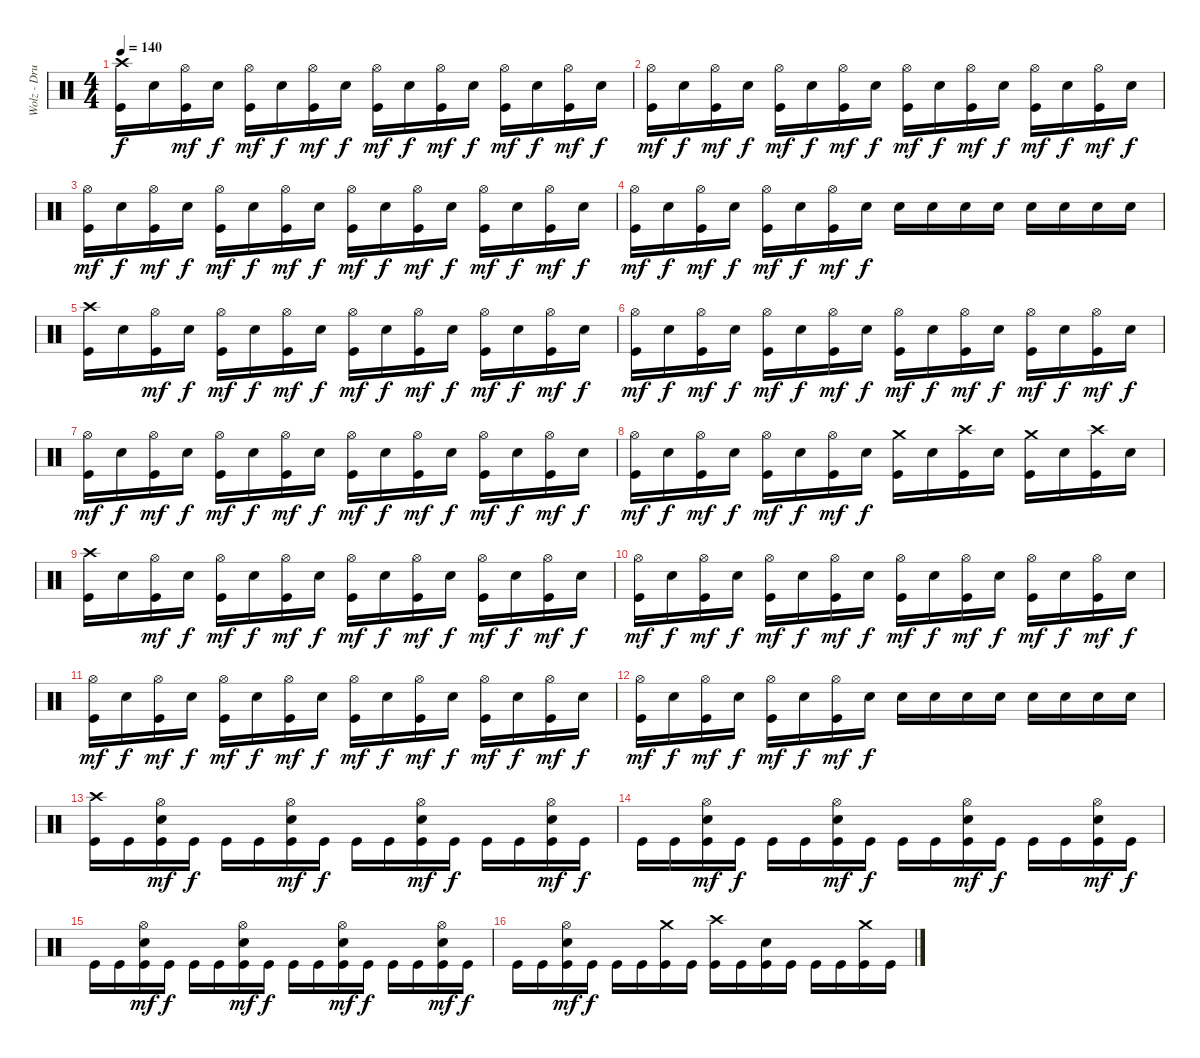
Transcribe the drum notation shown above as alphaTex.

\track ("Wolz - Drums" "Wolz - Dru") {instrument percussion}
\staff {score}
\articulation defaults
\ts (4 4)
\tempo 140
\clef neutral
\ks c
("Crash high (hit)" "Kick (hit)").16{dy f} "Electric Snare (hit)".16 ("Hi-Hat (open)" "Kick (hit)").16{dy mf} "Electric Snare (hit)".16{dy f} ("Hi-Hat (open)" "Kick (hit)").16{dy mf} "Electric Snare (hit)".16{dy f} ("Hi-Hat (open)" "Kick (hit)").16{dy mf} "Electric Snare (hit)".16{dy f} ("Hi-Hat (open)" "Kick (hit)").16{dy mf} "Electric Snare (hit)".16{dy f} ("Hi-Hat (open)" "Kick (hit)").16{dy mf} "Electric Snare (hit)".16{dy f} ("Hi-Hat (open)" "Kick (hit)").16{dy mf} "Electric Snare (hit)".16{dy f} ("Hi-Hat (open)" "Kick (hit)").16{dy mf} "Electric Snare (hit)".16{dy f} |
("Hi-Hat (open)" "Kick (hit)").16{dy mf} "Electric Snare (hit)".16{dy f} ("Hi-Hat (open)" "Kick (hit)").16{dy mf} "Electric Snare (hit)".16{dy f} ("Hi-Hat (open)" "Kick (hit)").16{dy mf} "Electric Snare (hit)".16{dy f} ("Hi-Hat (open)" "Kick (hit)").16{dy mf} "Electric Snare (hit)".16{dy f} ("Hi-Hat (open)" "Kick (hit)").16{dy mf} "Electric Snare (hit)".16{dy f} ("Hi-Hat (open)" "Kick (hit)").16{dy mf} "Electric Snare (hit)".16{dy f} ("Hi-Hat (open)" "Kick (hit)").16{dy mf} "Electric Snare (hit)".16{dy f} ("Hi-Hat (open)" "Kick (hit)").16{dy mf} "Electric Snare (hit)".16{dy f} |
("Hi-Hat (open)" "Kick (hit)").16{dy mf} "Electric Snare (hit)".16{dy f} ("Hi-Hat (open)" "Kick (hit)").16{dy mf} "Electric Snare (hit)".16{dy f} ("Hi-Hat (open)" "Kick (hit)").16{dy mf} "Electric Snare (hit)".16{dy f} ("Hi-Hat (open)" "Kick (hit)").16{dy mf} "Electric Snare (hit)".16{dy f} ("Hi-Hat (open)" "Kick (hit)").16{dy mf} "Electric Snare (hit)".16{dy f} ("Hi-Hat (open)" "Kick (hit)").16{dy mf} "Electric Snare (hit)".16{dy f} ("Hi-Hat (open)" "Kick (hit)").16{dy mf} "Electric Snare (hit)".16{dy f} ("Hi-Hat (open)" "Kick (hit)").16{dy mf} "Electric Snare (hit)".16{dy f} |
("Hi-Hat (open)" "Kick (hit)").16{dy mf} "Electric Snare (hit)".16{dy f} ("Hi-Hat (open)" "Kick (hit)").16{dy mf} "Electric Snare (hit)".16{dy f} ("Hi-Hat (open)" "Kick (hit)").16{dy mf} "Electric Snare (hit)".16{dy f} ("Hi-Hat (open)" "Kick (hit)").16{dy mf} "Electric Snare (hit)".16{dy f} "Electric Snare (hit)".16 "Electric Snare (hit)".16 "Electric Snare (hit)".16 "Electric Snare (hit)".16 "Electric Snare (hit)".16 "Electric Snare (hit)".16 "Electric Snare (hit)".16 "Electric Snare (hit)".16 |
("Crash high (hit)" "Kick (hit)").16 "Electric Snare (hit)".16 ("Hi-Hat (open)" "Kick (hit)").16{dy mf} "Electric Snare (hit)".16{dy f} ("Hi-Hat (open)" "Kick (hit)").16{dy mf} "Electric Snare (hit)".16{dy f} ("Hi-Hat (open)" "Kick (hit)").16{dy mf} "Electric Snare (hit)".16{dy f} ("Hi-Hat (open)" "Kick (hit)").16{dy mf} "Electric Snare (hit)".16{dy f} ("Hi-Hat (open)" "Kick (hit)").16{dy mf} "Electric Snare (hit)".16{dy f} ("Hi-Hat (open)" "Kick (hit)").16{dy mf} "Electric Snare (hit)".16{dy f} ("Hi-Hat (open)" "Kick (hit)").16{dy mf} "Electric Snare (hit)".16{dy f} |
("Hi-Hat (open)" "Kick (hit)").16{dy mf} "Electric Snare (hit)".16{dy f} ("Hi-Hat (open)" "Kick (hit)").16{dy mf} "Electric Snare (hit)".16{dy f} ("Hi-Hat (open)" "Kick (hit)").16{dy mf} "Electric Snare (hit)".16{dy f} ("Hi-Hat (open)" "Kick (hit)").16{dy mf} "Electric Snare (hit)".16{dy f} ("Hi-Hat (open)" "Kick (hit)").16{dy mf} "Electric Snare (hit)".16{dy f} ("Hi-Hat (open)" "Kick (hit)").16{dy mf} "Electric Snare (hit)".16{dy f} ("Hi-Hat (open)" "Kick (hit)").16{dy mf} "Electric Snare (hit)".16{dy f} ("Hi-Hat (open)" "Kick (hit)").16{dy mf} "Electric Snare (hit)".16{dy f} |
("Hi-Hat (open)" "Kick (hit)").16{dy mf} "Electric Snare (hit)".16{dy f} ("Hi-Hat (open)" "Kick (hit)").16{dy mf} "Electric Snare (hit)".16{dy f} ("Hi-Hat (open)" "Kick (hit)").16{dy mf} "Electric Snare (hit)".16{dy f} ("Hi-Hat (open)" "Kick (hit)").16{dy mf} "Electric Snare (hit)".16{dy f} ("Hi-Hat (open)" "Kick (hit)").16{dy mf} "Electric Snare (hit)".16{dy f} ("Hi-Hat (open)" "Kick (hit)").16{dy mf} "Electric Snare (hit)".16{dy f} ("Hi-Hat (open)" "Kick (hit)").16{dy mf} "Electric Snare (hit)".16{dy f} ("Hi-Hat (open)" "Kick (hit)").16{dy mf} "Electric Snare (hit)".16{dy f} |
("Hi-Hat (open)" "Kick (hit)").16{dy mf} "Electric Snare (hit)".16{dy f} ("Hi-Hat (open)" "Kick (hit)").16{dy mf} "Electric Snare (hit)".16{dy f} ("Hi-Hat (open)" "Kick (hit)").16{dy mf} "Electric Snare (hit)".16{dy f} ("Hi-Hat (open)" "Kick (hit)").16{dy mf} "Electric Snare (hit)".16{dy f} ("Crash medium (hit)" "Kick (hit)").16 "Electric Snare (hit)".16 ("Crash high (hit)" "Kick (hit)").16 "Electric Snare (hit)".16 ("Crash medium (hit)" "Kick (hit)").16 "Electric Snare (hit)".16 ("Crash high (hit)" "Kick (hit)").16 "Electric Snare (hit)".16 |
("Crash high (hit)" "Kick (hit)").16 "Electric Snare (hit)".16 ("Hi-Hat (open)" "Kick (hit)").16{dy mf} "Electric Snare (hit)".16{dy f} ("Hi-Hat (open)" "Kick (hit)").16{dy mf} "Electric Snare (hit)".16{dy f} ("Hi-Hat (open)" "Kick (hit)").16{dy mf} "Electric Snare (hit)".16{dy f} ("Hi-Hat (open)" "Kick (hit)").16{dy mf} "Electric Snare (hit)".16{dy f} ("Hi-Hat (open)" "Kick (hit)").16{dy mf} "Electric Snare (hit)".16{dy f} ("Hi-Hat (open)" "Kick (hit)").16{dy mf} "Electric Snare (hit)".16{dy f} ("Hi-Hat (open)" "Kick (hit)").16{dy mf} "Electric Snare (hit)".16{dy f} |
("Hi-Hat (open)" "Kick (hit)").16{dy mf} "Electric Snare (hit)".16{dy f} ("Hi-Hat (open)" "Kick (hit)").16{dy mf} "Electric Snare (hit)".16{dy f} ("Hi-Hat (open)" "Kick (hit)").16{dy mf} "Electric Snare (hit)".16{dy f} ("Hi-Hat (open)" "Kick (hit)").16{dy mf} "Electric Snare (hit)".16{dy f} ("Hi-Hat (open)" "Kick (hit)").16{dy mf} "Electric Snare (hit)".16{dy f} ("Hi-Hat (open)" "Kick (hit)").16{dy mf} "Electric Snare (hit)".16{dy f} ("Hi-Hat (open)" "Kick (hit)").16{dy mf} "Electric Snare (hit)".16{dy f} ("Hi-Hat (open)" "Kick (hit)").16{dy mf} "Electric Snare (hit)".16{dy f} |
("Hi-Hat (open)" "Kick (hit)").16{dy mf} "Electric Snare (hit)".16{dy f} ("Hi-Hat (open)" "Kick (hit)").16{dy mf} "Electric Snare (hit)".16{dy f} ("Hi-Hat (open)" "Kick (hit)").16{dy mf} "Electric Snare (hit)".16{dy f} ("Hi-Hat (open)" "Kick (hit)").16{dy mf} "Electric Snare (hit)".16{dy f} ("Hi-Hat (open)" "Kick (hit)").16{dy mf} "Electric Snare (hit)".16{dy f} ("Hi-Hat (open)" "Kick (hit)").16{dy mf} "Electric Snare (hit)".16{dy f} ("Hi-Hat (open)" "Kick (hit)").16{dy mf} "Electric Snare (hit)".16{dy f} ("Hi-Hat (open)" "Kick (hit)").16{dy mf} "Electric Snare (hit)".16{dy f} |
("Hi-Hat (open)" "Kick (hit)").16{dy mf} "Electric Snare (hit)".16{dy f} ("Hi-Hat (open)" "Kick (hit)").16{dy mf} "Electric Snare (hit)".16{dy f} ("Hi-Hat (open)" "Kick (hit)").16{dy mf} "Electric Snare (hit)".16{dy f} ("Hi-Hat (open)" "Kick (hit)").16{dy mf} "Electric Snare (hit)".16{dy f} "Electric Snare (hit)".16 "Electric Snare (hit)".16 "Electric Snare (hit)".16 "Electric Snare (hit)".16 "Electric Snare (hit)".16 "Electric Snare (hit)".16 "Electric Snare (hit)".16 "Electric Snare (hit)".16 |
("Crash high (hit)" "Kick (hit)").16 "Kick (hit)".16 ("Hi-Hat (open)" "Electric Snare (hit)" "Kick (hit)").16{dy mf} "Kick (hit)".16{dy f} "Kick (hit)".16 "Kick (hit)".16 ("Hi-Hat (open)" "Electric Snare (hit)" "Kick (hit)").16{dy mf} "Kick (hit)".16{dy f} "Kick (hit)".16 "Kick (hit)".16 ("Hi-Hat (open)" "Electric Snare (hit)" "Kick (hit)").16{dy mf} "Kick (hit)".16{dy f} "Kick (hit)".16 "Kick (hit)".16 ("Hi-Hat (open)" "Electric Snare (hit)" "Kick (hit)").16{dy mf} "Kick (hit)".16{dy f} |
"Kick (hit)".16 "Kick (hit)".16 ("Hi-Hat (open)" "Electric Snare (hit)" "Kick (hit)").16{dy mf} "Kick (hit)".16{dy f} "Kick (hit)".16 "Kick (hit)".16 ("Hi-Hat (open)" "Electric Snare (hit)" "Kick (hit)").16{dy mf} "Kick (hit)".16{dy f} "Kick (hit)".16 "Kick (hit)".16 ("Hi-Hat (open)" "Electric Snare (hit)" "Kick (hit)").16{dy mf} "Kick (hit)".16{dy f} "Kick (hit)".16 "Kick (hit)".16 ("Hi-Hat (open)" "Electric Snare (hit)" "Kick (hit)").16{dy mf} "Kick (hit)".16{dy f} |
"Kick (hit)".16 "Kick (hit)".16 ("Hi-Hat (open)" "Electric Snare (hit)" "Kick (hit)").16{dy mf} "Kick (hit)".16{dy f} "Kick (hit)".16 "Kick (hit)".16 ("Hi-Hat (open)" "Electric Snare (hit)" "Kick (hit)").16{dy mf} "Kick (hit)".16{dy f} "Kick (hit)".16 "Kick (hit)".16 ("Hi-Hat (open)" "Electric Snare (hit)" "Kick (hit)").16{dy mf} "Kick (hit)".16{dy f} "Kick (hit)".16 "Kick (hit)".16 ("Hi-Hat (open)" "Electric Snare (hit)" "Kick (hit)").16{dy mf} "Kick (hit)".16{dy f} |
"Kick (hit)".16 "Kick (hit)".16 ("Hi-Hat (open)" "Electric Snare (hit)" "Kick (hit)").16{dy mf} "Kick (hit)".16{dy f} "Kick (hit)".16 "Kick (hit)".16 ("Crash medium (hit)" "Kick (hit)").16 "Kick (hit)".16 ("Crash high (hit)" "Kick (hit)").16 "Kick (hit)".16 ("Electric Snare (hit)" "Kick (hit)").16 "Kick (hit)".16 "Kick (hit)".16 "Kick (hit)".16 ("Crash medium (hit)" "Kick (hit)").16 "Kick (hit)".16
